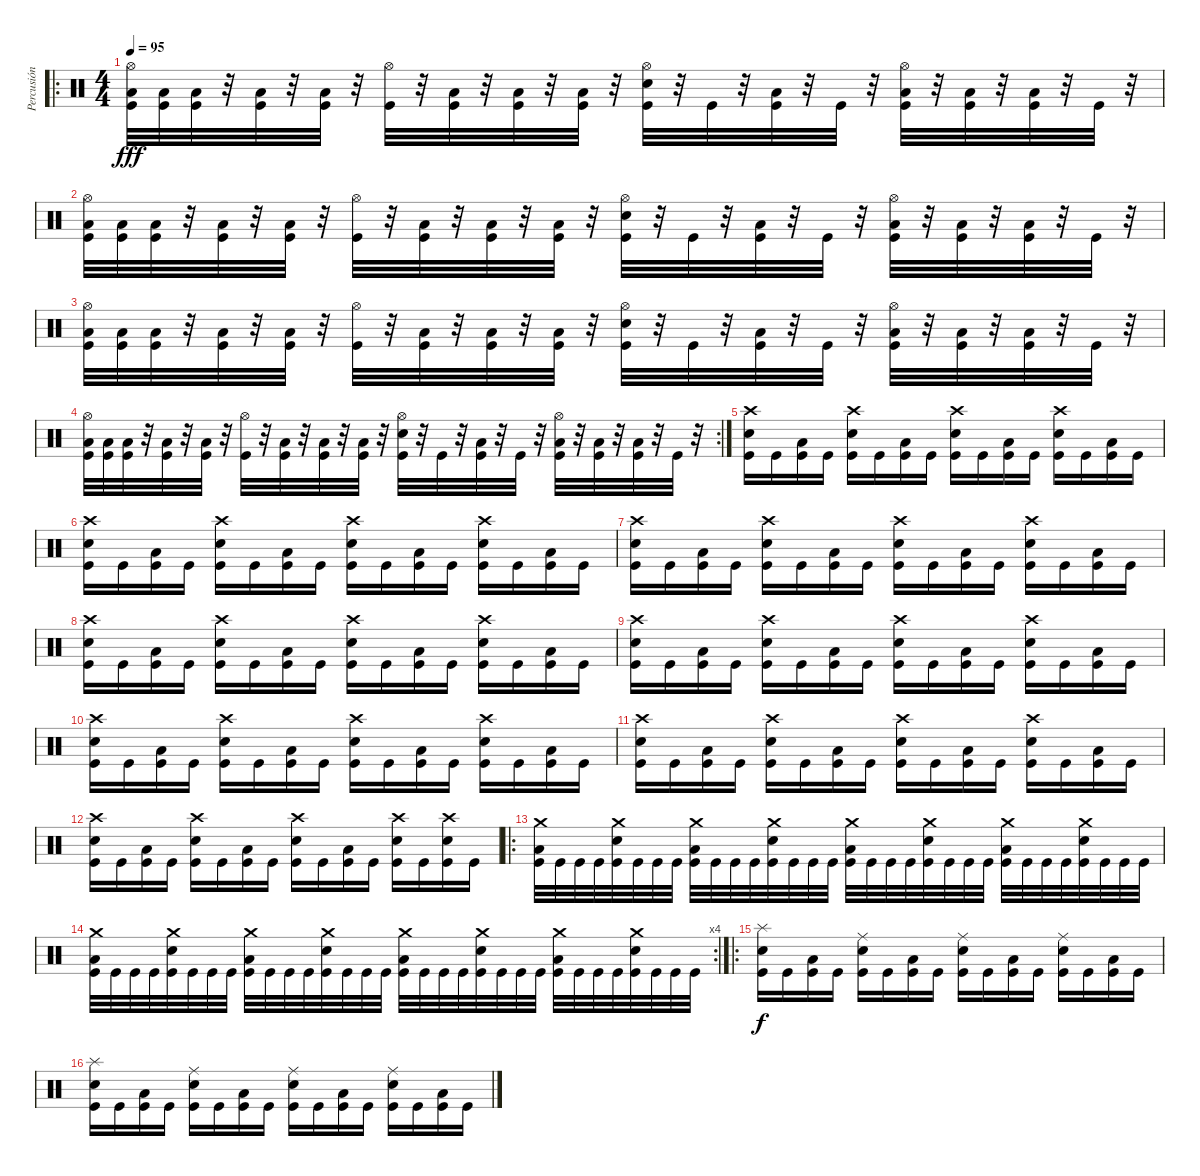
\track ("Percusión" "Percusión") {instrument percussion}
\staff {score}
\articulation defaults
\ro
\ts (4 4)
\tempo 95
\clef neutral
\ks c
("Hi-Hat (open)" "Low Floor Tom (hit)" "Kick (hit)").32{dy fff} ("Low Floor Tom (hit)" "Kick (hit)").32 ("Low Floor Tom (hit)" "Kick (hit)").32 r.32 ("Low Floor Tom (hit)" "Kick (hit)").32 r.32 ("Low Floor Tom (hit)" "Kick (hit)").32 r.32 ("Hi-Hat (open)" "Kick (hit)").32 r.32 ("Low Floor Tom (hit)" "Kick (hit)").32 r.32 ("Low Floor Tom (hit)" "Kick (hit)").32 r.32 ("Low Floor Tom (hit)" "Kick (hit)").32 r.32 ("Hi-Hat (open)" "Snare (hit) 2" "Kick (hit)").32 r.32 "Kick (hit)".32 r.32 ("Low Floor Tom (hit)" "Kick (hit)").32 r.32 "Kick (hit)".32 r.32 ("Hi-Hat (open)" "Low Floor Tom (hit)" "Kick (hit)").32 r.32 ("Low Floor Tom (hit)" "Kick (hit)").32 r.32 ("Low Floor Tom (hit)" "Kick (hit)").32 r.32 "Kick (hit)".32 r.32 |
("Hi-Hat (open)" "Low Floor Tom (hit)" "Kick (hit)").32 ("Low Floor Tom (hit)" "Kick (hit)").32 ("Low Floor Tom (hit)" "Kick (hit)").32 r.32 ("Low Floor Tom (hit)" "Kick (hit)").32 r.32 ("Low Floor Tom (hit)" "Kick (hit)").32 r.32 ("Hi-Hat (open)" "Kick (hit)").32 r.32 ("Low Floor Tom (hit)" "Kick (hit)").32 r.32 ("Low Floor Tom (hit)" "Kick (hit)").32 r.32 ("Low Floor Tom (hit)" "Kick (hit)").32 r.32 ("Hi-Hat (open)" "Snare (hit) 2" "Kick (hit)").32 r.32 "Kick (hit)".32 r.32 ("Low Floor Tom (hit)" "Kick (hit)").32 r.32 "Kick (hit)".32 r.32 ("Hi-Hat (open)" "Low Floor Tom (hit)" "Kick (hit)").32 r.32 ("Low Floor Tom (hit)" "Kick (hit)").32 r.32 ("Low Floor Tom (hit)" "Kick (hit)").32 r.32 "Kick (hit)".32 r.32 |
("Hi-Hat (open)" "Low Floor Tom (hit)" "Kick (hit)").32 ("Low Floor Tom (hit)" "Kick (hit)").32 ("Low Floor Tom (hit)" "Kick (hit)").32 r.32 ("Low Floor Tom (hit)" "Kick (hit)").32 r.32 ("Low Floor Tom (hit)" "Kick (hit)").32 r.32 ("Hi-Hat (open)" "Kick (hit)").32 r.32 ("Low Floor Tom (hit)" "Kick (hit)").32 r.32 ("Low Floor Tom (hit)" "Kick (hit)").32 r.32 ("Low Floor Tom (hit)" "Kick (hit)").32 r.32 ("Hi-Hat (open)" "Snare (hit) 2" "Kick (hit)").32 r.32 "Kick (hit)".32 r.32 ("Low Floor Tom (hit)" "Kick (hit)").32 r.32 "Kick (hit)".32 r.32 ("Hi-Hat (open)" "Low Floor Tom (hit)" "Kick (hit)").32 r.32 ("Low Floor Tom (hit)" "Kick (hit)").32 r.32 ("Low Floor Tom (hit)" "Kick (hit)").32 r.32 "Kick (hit)".32 r.32 |
\rc 2
("Hi-Hat (open)" "Low Floor Tom (hit)" "Kick (hit)").32 ("Low Floor Tom (hit)" "Kick (hit)").32 ("Low Floor Tom (hit)" "Kick (hit)").32 r.32 ("Low Floor Tom (hit)" "Kick (hit)").32 r.32 ("Low Floor Tom (hit)" "Kick (hit)").32 r.32 ("Hi-Hat (open)" "Kick (hit)").32 r.32 ("Low Floor Tom (hit)" "Kick (hit)").32 r.32 ("Low Floor Tom (hit)" "Kick (hit)").32 r.32 ("Low Floor Tom (hit)" "Kick (hit)").32 r.32 ("Hi-Hat (open)" "Snare (hit) 2" "Kick (hit)").32 r.32 "Kick (hit)".32 r.32 ("Low Floor Tom (hit)" "Kick (hit)").32 r.32 "Kick (hit)".32 r.32 ("Hi-Hat (open)" "Low Floor Tom (hit)" "Kick (hit)").32 r.32 ("Low Floor Tom (hit)" "Kick (hit)").32 r.32 ("Low Floor Tom (hit)" "Kick (hit)").32 r.32 "Kick (hit)".32 r.32 |
("Crash high (hit)" "Snare (hit) 2" "Kick (hit)").16 "Kick (hit)".16 ("Low Floor Tom (hit)" "Kick (hit)").16 "Kick (hit)".16 ("Crash high (hit)" "Snare (hit) 2" "Kick (hit)").16 "Kick (hit)".16 ("Low Floor Tom (hit)" "Kick (hit)").16 "Kick (hit)".16 ("Crash high (hit)" "Snare (hit) 2" "Kick (hit)").16 "Kick (hit)".16 ("Low Floor Tom (hit)" "Kick (hit)").16 "Kick (hit)".16 ("Crash high (hit)" "Snare (hit) 2" "Kick (hit)").16 "Kick (hit)".16 ("Low Floor Tom (hit)" "Kick (hit)").16 "Kick (hit)".16 |
("Crash high (hit)" "Snare (hit) 2" "Kick (hit)").16 "Kick (hit)".16 ("Low Floor Tom (hit)" "Kick (hit)").16 "Kick (hit)".16 ("Crash high (hit)" "Snare (hit) 2" "Kick (hit)").16 "Kick (hit)".16 ("Low Floor Tom (hit)" "Kick (hit)").16 "Kick (hit)".16 ("Crash high (hit)" "Snare (hit) 2" "Kick (hit)").16 "Kick (hit)".16 ("Low Floor Tom (hit)" "Kick (hit)").16 "Kick (hit)".16 ("Crash high (hit)" "Snare (hit) 2" "Kick (hit)").16 "Kick (hit)".16 ("Low Floor Tom (hit)" "Kick (hit)").16 "Kick (hit)".16 |
("Crash high (hit)" "Snare (hit) 2" "Kick (hit)").16 "Kick (hit)".16 ("Low Floor Tom (hit)" "Kick (hit)").16 "Kick (hit)".16 ("Crash high (hit)" "Snare (hit) 2" "Kick (hit)").16 "Kick (hit)".16 ("Low Floor Tom (hit)" "Kick (hit)").16 "Kick (hit)".16 ("Crash high (hit)" "Snare (hit) 2" "Kick (hit)").16 "Kick (hit)".16 ("Low Floor Tom (hit)" "Kick (hit)").16 "Kick (hit)".16 ("Crash high (hit)" "Snare (hit) 2" "Kick (hit)").16 "Kick (hit)".16 ("Low Floor Tom (hit)" "Kick (hit)").16 "Kick (hit)".16 |
("Crash high (hit)" "Snare (hit) 2" "Kick (hit)").16 "Kick (hit)".16 ("Low Floor Tom (hit)" "Kick (hit)").16 "Kick (hit)".16 ("Crash high (hit)" "Snare (hit) 2" "Kick (hit)").16 "Kick (hit)".16 ("Low Floor Tom (hit)" "Kick (hit)").16 "Kick (hit)".16 ("Crash high (hit)" "Snare (hit) 2" "Kick (hit)").16 "Kick (hit)".16 ("Low Floor Tom (hit)" "Kick (hit)").16 "Kick (hit)".16 ("Crash high (hit)" "Snare (hit) 2" "Kick (hit)").16 "Kick (hit)".16 ("Low Floor Tom (hit)" "Kick (hit)").16 "Kick (hit)".16 |
("Crash high (hit)" "Snare (hit) 2" "Kick (hit)").16 "Kick (hit)".16 ("Low Floor Tom (hit)" "Kick (hit)").16 "Kick (hit)".16 ("Crash high (hit)" "Snare (hit) 2" "Kick (hit)").16 "Kick (hit)".16 ("Low Floor Tom (hit)" "Kick (hit)").16 "Kick (hit)".16 ("Crash high (hit)" "Snare (hit) 2" "Kick (hit)").16 "Kick (hit)".16 ("Low Floor Tom (hit)" "Kick (hit)").16 "Kick (hit)".16 ("Crash high (hit)" "Snare (hit) 2" "Kick (hit)").16 "Kick (hit)".16 ("Low Floor Tom (hit)" "Kick (hit)").16 "Kick (hit)".16 |
("Crash high (hit)" "Snare (hit) 2" "Kick (hit)").16 "Kick (hit)".16 ("Low Floor Tom (hit)" "Kick (hit)").16 "Kick (hit)".16 ("Crash high (hit)" "Snare (hit) 2" "Kick (hit)").16 "Kick (hit)".16 ("Low Floor Tom (hit)" "Kick (hit)").16 "Kick (hit)".16 ("Crash high (hit)" "Snare (hit) 2" "Kick (hit)").16 "Kick (hit)".16 ("Low Floor Tom (hit)" "Kick (hit)").16 "Kick (hit)".16 ("Crash high (hit)" "Snare (hit) 2" "Kick (hit)").16 "Kick (hit)".16 ("Low Floor Tom (hit)" "Kick (hit)").16 "Kick (hit)".16 |
("Crash high (hit)" "Snare (hit) 2" "Kick (hit)").16 "Kick (hit)".16 ("Low Floor Tom (hit)" "Kick (hit)").16 "Kick (hit)".16 ("Crash high (hit)" "Snare (hit) 2" "Kick (hit)").16 "Kick (hit)".16 ("Low Floor Tom (hit)" "Kick (hit)").16 "Kick (hit)".16 ("Crash high (hit)" "Snare (hit) 2" "Kick (hit)").16 "Kick (hit)".16 ("Low Floor Tom (hit)" "Kick (hit)").16 "Kick (hit)".16 ("Crash high (hit)" "Snare (hit) 2" "Kick (hit)").16 "Kick (hit)".16 ("Low Floor Tom (hit)" "Kick (hit)").16 "Kick (hit)".16 |
("Crash high (hit)" "Snare (hit) 2" "Kick (hit)").16 "Kick (hit)".16 ("Low Floor Tom (hit)" "Kick (hit)").16 "Kick (hit)".16 ("Crash high (hit)" "Snare (hit) 2" "Kick (hit)").16 "Kick (hit)".16 ("Low Floor Tom (hit)" "Kick (hit)").16 "Kick (hit)".16 ("Crash high (hit)" "Snare (hit) 2" "Kick (hit)").16 "Kick (hit)".16 ("Low Floor Tom (hit)" "Kick (hit)").16 "Kick (hit)".16 ("Crash high (hit)" "Snare (hit) 2" "Kick (hit)").16 "Kick (hit)".16 ("Crash high (hit)" "Snare (hit) 2" "Kick (hit)").16 "Kick (hit)".16 |
\ro
("Crash medium (hit)" "Low Floor Tom (hit)" "Kick (hit)").32 "Kick (hit)".32 "Kick (hit)".32 "Kick (hit)".32 ("Crash medium (hit)" "Snare (hit) 2" "Kick (hit)").32 "Kick (hit)".32 "Kick (hit)".32 "Kick (hit)".32 ("Crash medium (hit)" "Low Floor Tom (hit)" "Kick (hit)").32 "Kick (hit)".32 "Kick (hit)".32 "Kick (hit)".32 ("Crash medium (hit)" "Snare (hit) 2" "Kick (hit)").32 "Kick (hit)".32 "Kick (hit)".32 "Kick (hit)".32 ("Crash medium (hit)" "Low Floor Tom (hit)" "Kick (hit)").32 "Kick (hit)".32 "Kick (hit)".32 "Kick (hit)".32 ("Crash medium (hit)" "Snare (hit) 2" "Kick (hit)").32 "Kick (hit)".32 "Kick (hit)".32 "Kick (hit)".32 ("Crash medium (hit)" "Low Floor Tom (hit)" "Kick (hit)").32 "Kick (hit)".32 "Kick (hit)".32 "Kick (hit)".32 ("Crash medium (hit)" "Snare (hit) 2" "Kick (hit)").32 "Kick (hit)".32 "Kick (hit)".32 "Kick (hit)".32 |
\rc 4
("Crash medium (hit)" "Low Floor Tom (hit)" "Kick (hit)").32 "Kick (hit)".32 "Kick (hit)".32 "Kick (hit)".32 ("Crash medium (hit)" "Snare (hit) 2" "Kick (hit)").32 "Kick (hit)".32 "Kick (hit)".32 "Kick (hit)".32 ("Crash medium (hit)" "Low Floor Tom (hit)" "Kick (hit)").32 "Kick (hit)".32 "Kick (hit)".32 "Kick (hit)".32 ("Crash medium (hit)" "Snare (hit) 2" "Kick (hit)").32 "Kick (hit)".32 "Kick (hit)".32 "Kick (hit)".32 ("Crash medium (hit)" "Low Floor Tom (hit)" "Kick (hit)").32 "Kick (hit)".32 "Kick (hit)".32 "Kick (hit)".32 ("Crash medium (hit)" "Snare (hit) 2" "Kick (hit)").32 "Kick (hit)".32 "Kick (hit)".32 "Kick (hit)".32 ("Crash medium (hit)" "Low Floor Tom (hit)" "Kick (hit)").32 "Kick (hit)".32 "Kick (hit)".32 "Kick (hit)".32 ("Crash medium (hit)" "Snare (hit) 2" "Kick (hit)").32 "Kick (hit)".32 "Kick (hit)".32 "Kick (hit)".32 |
\ro
("Splash (hit)" "Snare (hit) 2" "Kick (hit)").16{dy f} "Kick (hit)".16 ("Low Floor Tom (hit)" "Kick (hit)").16 "Kick (hit)".16 ("Ride (middle)" "Snare (hit) 2" "Kick (hit)").16 "Kick (hit)".16 ("Low Floor Tom (hit)" "Kick (hit)").16 "Kick (hit)".16 ("Ride (middle)" "Snare (hit) 2" "Kick (hit)").16 "Kick (hit)".16 ("Low Floor Tom (hit)" "Kick (hit)").16 "Kick (hit)".16 ("Ride (middle)" "Snare (hit) 2" "Kick (hit)").16 "Kick (hit)".16 ("Low Floor Tom (hit)" "Kick (hit)").16 "Kick (hit)".16 |
("Splash (hit)" "Snare (hit) 2" "Kick (hit)").16 "Kick (hit)".16 ("Low Floor Tom (hit)" "Kick (hit)").16 "Kick (hit)".16 ("Ride (middle)" "Snare (hit) 2" "Kick (hit)").16 "Kick (hit)".16 ("Low Floor Tom (hit)" "Kick (hit)").16 "Kick (hit)".16 ("Ride (middle)" "Snare (hit) 2" "Kick (hit)").16 "Kick (hit)".16 ("Low Floor Tom (hit)" "Kick (hit)").16 "Kick (hit)".16 ("Ride (middle)" "Snare (hit) 2" "Kick (hit)").16 "Kick (hit)".16 ("Low Floor Tom (hit)" "Kick (hit)").16 "Kick (hit)".16
